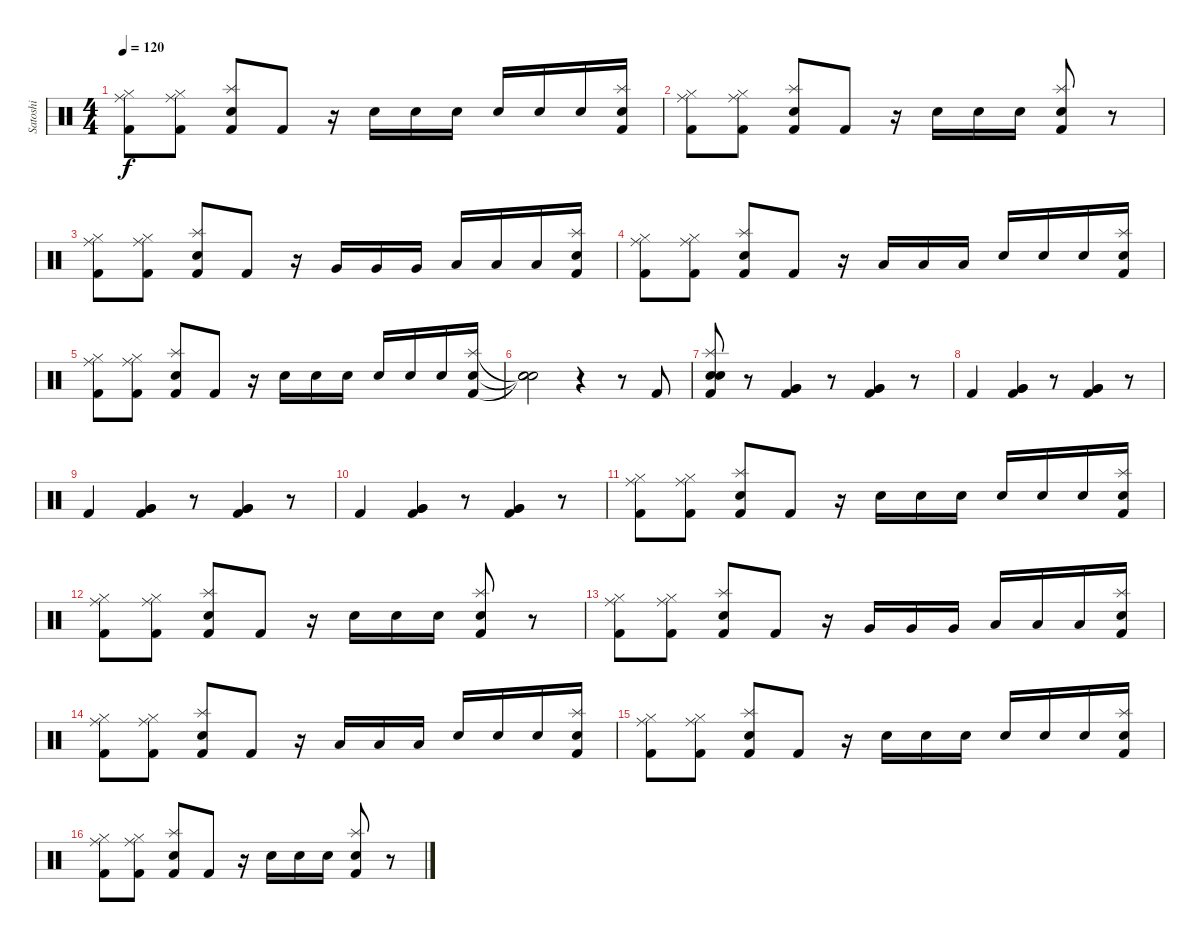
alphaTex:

\track ("Satoshi" "Satoshi") {instrument percussion}
\staff {score}
\articulation defaults
\ts (4 4)
\tempo 120
\clef neutral
\ks c
("Ride (middle)" "Hi-Hat (closed)" "Kick (hit) 2").8{dy f} ("Ride (middle)" "Hi-Hat (closed)" "Kick (hit) 2").8 ("Splash (hit)" "Electric Snare (hit)" "Kick (hit) 2").8 "Kick (hit) 2".8 r.16 "Electric Snare (hit)".16 "Electric Snare (hit)".16 "Electric Snare (hit)".16 "Electric Snare (hit)".16 "Electric Snare (hit)".16 "Electric Snare (hit)".16 ("Splash (hit)" "Electric Snare (hit)" "Kick (hit) 2").16 |
("Ride (middle)" "Hi-Hat (closed)" "Kick (hit) 2").8 ("Ride (middle)" "Hi-Hat (closed)" "Kick (hit) 2").8 ("Splash (hit)" "Electric Snare (hit)" "Kick (hit) 2").8 "Kick (hit) 2".8 r.16 "Electric Snare (hit)".16 "Electric Snare (hit)".16 "Electric Snare (hit)".16 ("Splash (hit)" "Electric Snare (hit)" "Kick (hit) 2").8 r.8 |
("Ride (middle)" "Hi-Hat (closed)" "Kick (hit) 2").8 ("Ride (middle)" "Hi-Hat (closed)" "Kick (hit) 2").8 ("Splash (hit)" "Electric Snare (hit)" "Kick (hit) 2").8 "Kick (hit) 2".8 r.16 "Very Low Tom (hit)".16 "Very Low Tom (hit)".16 "Very Low Tom (hit)".16 "Low Floor Tom (hit)".16 "Low Floor Tom (hit)".16 "Low Floor Tom (hit)".16 ("Splash (hit)" "Electric Snare (hit)" "Kick (hit) 2").16 |
("Ride (middle)" "Hi-Hat (closed)" "Kick (hit) 2").8 ("Ride (middle)" "Hi-Hat (closed)" "Kick (hit) 2").8 ("Splash (hit)" "Electric Snare (hit)" "Kick (hit) 2").8 "Kick (hit) 2".8 r.16 "Low Floor Tom (hit)".16 "Low Floor Tom (hit)".16 "Low Floor Tom (hit)".16 "Electric Snare (hit)".16 "Electric Snare (hit)".16 "Electric Snare (hit)".16 ("Splash (hit)" "Electric Snare (hit)" "Kick (hit) 2").16 |
("Ride (middle)" "Hi-Hat (closed)" "Kick (hit) 2").8 ("Ride (middle)" "Hi-Hat (closed)" "Kick (hit) 2").8 ("Splash (hit)" "Electric Snare (hit)" "Kick (hit) 2").8 "Kick (hit) 2".8 r.16 "Electric Snare (hit)".16 "Electric Snare (hit)".16 "Electric Snare (hit)".16 "Electric Snare (hit)".16 "Electric Snare (hit)".16 "Electric Snare (hit)".16 ("Splash (hit)" "Electric Snare (hit)" "Kick (hit) 2").16 |
("Snare (hit)"{t} "Snare (hit)"{t} "Snare (hit)"{t}).2 r.4 r.8 "Kick (hit) 2".8 |
("Splash (hit)" "Electric Snare (hit)" "Electric Snare (hit)" "Kick (hit) 2").8 r.8 ("Very Low Tom (hit)" "Very Low Tom (hit)" "Kick (hit) 2").4 r.8 ("Very Low Tom (hit)" "Very Low Tom (hit)" "Kick (hit) 2").4 r.8 |
"Kick (hit) 2".4 ("Very Low Tom (hit)" "Very Low Tom (hit)" "Kick (hit) 2").4 r.8 ("Very Low Tom (hit)" "Very Low Tom (hit)" "Kick (hit) 2").4 r.8 |
"Kick (hit) 2".4 ("Very Low Tom (hit)" "Very Low Tom (hit)" "Kick (hit) 2").4 r.8 ("Very Low Tom (hit)" "Very Low Tom (hit)" "Kick (hit) 2").4 r.8 |
"Kick (hit) 2".4 ("Very Low Tom (hit)" "Very Low Tom (hit)" "Kick (hit) 2").4 r.8 ("Very Low Tom (hit)" "Very Low Tom (hit)" "Kick (hit) 2").4 r.8 |
("Ride (middle)" "Hi-Hat (closed)" "Kick (hit) 2").8 ("Ride (middle)" "Hi-Hat (closed)" "Kick (hit) 2").8 ("Splash (hit)" "Electric Snare (hit)" "Kick (hit) 2").8 "Kick (hit) 2".8 r.16 "Electric Snare (hit)".16 "Electric Snare (hit)".16 "Electric Snare (hit)".16 "Electric Snare (hit)".16 "Electric Snare (hit)".16 "Electric Snare (hit)".16 ("Splash (hit)" "Electric Snare (hit)" "Kick (hit) 2").16 |
("Ride (middle)" "Hi-Hat (closed)" "Kick (hit) 2").8 ("Ride (middle)" "Hi-Hat (closed)" "Kick (hit) 2").8 ("Splash (hit)" "Electric Snare (hit)" "Kick (hit) 2").8 "Kick (hit) 2".8 r.16 "Electric Snare (hit)".16 "Electric Snare (hit)".16 "Electric Snare (hit)".16 ("Splash (hit)" "Electric Snare (hit)" "Kick (hit) 2").8 r.8 |
("Ride (middle)" "Hi-Hat (closed)" "Kick (hit) 2").8 ("Ride (middle)" "Hi-Hat (closed)" "Kick (hit) 2").8 ("Splash (hit)" "Electric Snare (hit)" "Kick (hit) 2").8 "Kick (hit) 2".8 r.16 "Very Low Tom (hit)".16 "Very Low Tom (hit)".16 "Very Low Tom (hit)".16 "Low Floor Tom (hit)".16 "Low Floor Tom (hit)".16 "Low Floor Tom (hit)".16 ("Splash (hit)" "Electric Snare (hit)" "Kick (hit) 2").16 |
("Ride (middle)" "Hi-Hat (closed)" "Kick (hit) 2").8 ("Ride (middle)" "Hi-Hat (closed)" "Kick (hit) 2").8 ("Splash (hit)" "Electric Snare (hit)" "Kick (hit) 2").8 "Kick (hit) 2".8 r.16 "Low Floor Tom (hit)".16 "Low Floor Tom (hit)".16 "Low Floor Tom (hit)".16 "Electric Snare (hit)".16 "Electric Snare (hit)".16 "Electric Snare (hit)".16 ("Splash (hit)" "Electric Snare (hit)" "Kick (hit) 2").16 |
("Ride (middle)" "Hi-Hat (closed)" "Kick (hit) 2").8 ("Ride (middle)" "Hi-Hat (closed)" "Kick (hit) 2").8 ("Splash (hit)" "Electric Snare (hit)" "Kick (hit) 2").8 "Kick (hit) 2".8 r.16 "Electric Snare (hit)".16 "Electric Snare (hit)".16 "Electric Snare (hit)".16 "Electric Snare (hit)".16 "Electric Snare (hit)".16 "Electric Snare (hit)".16 ("Splash (hit)" "Electric Snare (hit)" "Kick (hit) 2").16 |
("Ride (middle)" "Hi-Hat (closed)" "Kick (hit) 2").8 ("Ride (middle)" "Hi-Hat (closed)" "Kick (hit) 2").8 ("Splash (hit)" "Electric Snare (hit)" "Kick (hit) 2").8 "Kick (hit) 2".8 r.16 "Electric Snare (hit)".16 "Electric Snare (hit)".16 "Electric Snare (hit)".16 ("Splash (hit)" "Electric Snare (hit)" "Kick (hit) 2").8 r.8
